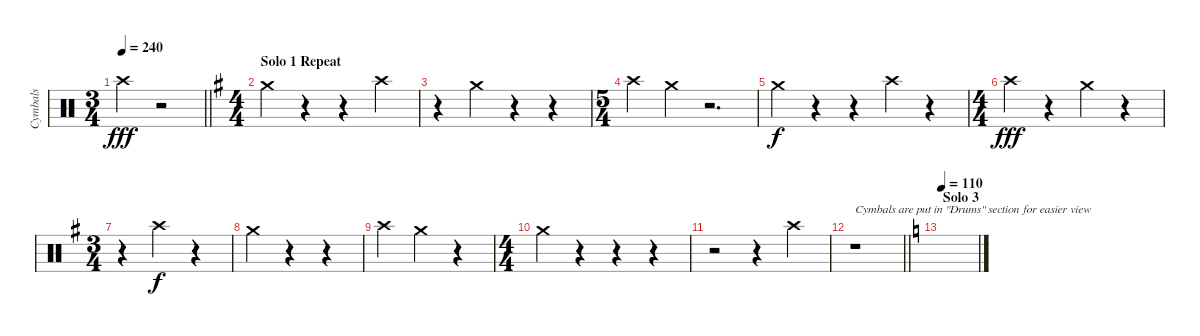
\track ("Cymbals" "Cymbals") {instrument percussion}
\staff {score}
\articulation defaults
\ts (3 4)
\tempo 240
\clef neutral
\barLineRight lightlight
\ks c "Crash high (hit)".4{dy fff}
r.2 |
\ts (4 4)
\section ("" "Solo 1 Repeat")
\ks g "Crash medium (hit)".4
r.4 r.4 "Crash high (hit)".4 |
r.4 "Crash medium (hit)".4 r.4 r.4 |
\ts (5 4)
"Crash high (hit)".4 "Crash medium (hit)".4 r.2{d} |
"Crash medium (hit)".4{dy f} r.4 r.4 "Crash high (hit)".4 r.4 |
\ts (4 4)
"Crash high (hit)".4{dy fff} r.4 "Crash medium (hit)".4 r.4 |
\ts (3 4)
r.4 "Crash high (hit)".4{dy f} r.4 |
"Crash medium (hit)".4 r.4 r.4 |
"Crash high (hit)".4 "Crash medium (hit)".4 r.4 |
\ts (4 4)
"Crash medium (hit)".4 r.4 r.4 r.4 |
r.2 r.4 "Crash high (hit)".4 |
\barLineRight lightlight
r.1{txt "Cymbals are put in \"Drums\" section for easier view"} |
\section ("" "Solo 3")
\tempo 110
\ks c
